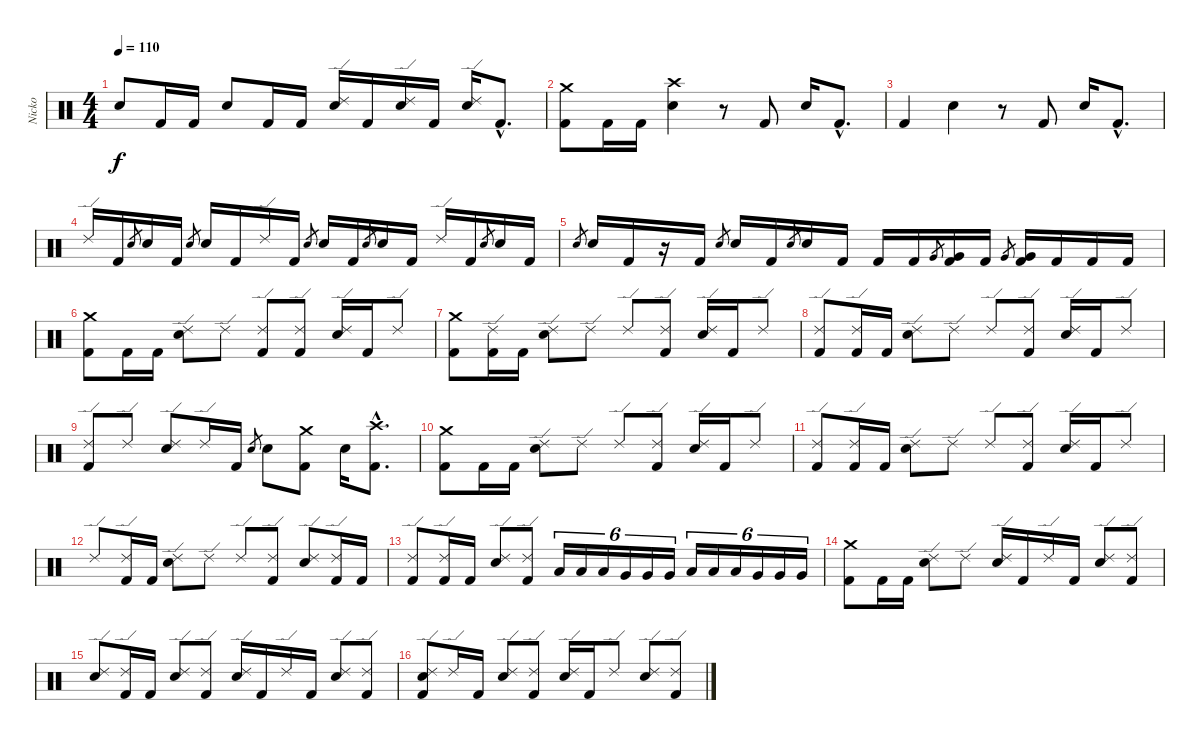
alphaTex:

\track ("Nicko" "Nicko") {instrument percussion}
\staff {score}
\articulation defaults
\ts (4 4)
\tempo 110
\clef neutral
\ks c "Electric Snare (hit)".8{dy f} "Kick (hit) 2".16 "Kick (hit) 2".16 "Electric Snare (hit)".8 "Kick (hit) 2".16 "Kick (hit) 2".16
("Ride (edge) 2" "Electric Snare (hit)").16 "Kick (hit) 2".16 ("Ride (edge) 2" "Electric Snare (hit)").16 "Kick (hit) 2".16 ("Ride (edge) 2" "Electric Snare (hit)").16 "Kick (hit) 2"{hac}.8{d} |
("Crash medium (hit)" "Kick (hit) 2").8 "Kick (hit) 2".16 "Kick (hit) 2".16 ("Crash high (hit)" "Electric Snare (hit)").4 r.8 "Kick (hit) 2".8 "Electric Snare (hit)".16 "Kick (hit) 2"{hac}.8{d} |
"Kick (hit) 2".4 "Electric Snare (hit)".4 r.8 "Kick (hit) 2".8 "Electric Snare (hit)".16 "Kick (hit) 2"{hac}.8{d} |
"Ride (edge) 2".16 "Kick (hit) 2".16 "Electric Snare (hit)".8{gr} "Electric Snare (hit)".16 "Kick (hit) 2".16 "Electric Snare (hit)".8{gr} "Electric Snare (hit)".16 "Kick (hit) 2".16 "Ride (edge) 2".16 "Kick (hit) 2".16 "Electric Snare (hit)".8{gr} "Electric Snare (hit)".16 "Kick (hit) 2".16 "Electric Snare (hit)".8{gr} "Electric Snare (hit)".16 "Kick (hit) 2".16 "Ride (edge) 2".16 "Kick (hit) 2".16 "Electric Snare (hit)".8{gr} "Electric Snare (hit)".16 "Kick (hit) 2".16 |
"Electric Snare (hit)".8{gr} "Electric Snare (hit)".16 "Kick (hit) 2".16 r.16 "Kick (hit) 2".16 "Electric Snare (hit)".8{gr} "Electric Snare (hit)".16 "Kick (hit) 2".16 "Electric Snare (hit)".8{gr} "Electric Snare (hit)".16 "Kick (hit) 2".16 "Kick (hit) 2".16 "Kick (hit) 2".16 "Very Low Tom (hit)".8{gr} ("Very Low Tom (hit)" "Kick (hit) 2").16 "Kick (hit) 2".16 "Very Low Tom (hit)".8{gr} ("Very Low Tom (hit)" "Kick (hit) 2").16 "Kick (hit) 2".16 "Kick (hit) 2".16 "Kick (hit) 2".16 |
("Crash medium (hit)" "Kick (hit) 2").8 "Kick (hit) 2".16 "Kick (hit) 2".16 ("Ride (edge) 2" "Electric Snare (hit)").8 "Ride (edge) 2".8 ("Ride (edge) 2" "Kick (hit) 2").8 ("Ride (edge) 2" "Kick (hit) 2").8 ("Ride (edge) 2" "Electric Snare (hit)").16 "Kick (hit) 2".16 "Ride (edge) 2".8 |
("Crash medium (hit)" "Kick (hit) 2").8 ("Ride (edge) 2" "Kick (hit) 2").16 "Kick (hit) 2".16 ("Ride (edge) 2" "Electric Snare (hit)").8 "Ride (edge) 2".8 "Ride (edge) 2".8 ("Ride (edge) 2" "Kick (hit) 2").8 ("Ride (edge) 2" "Electric Snare (hit)").16 "Kick (hit) 2".16 "Ride (edge) 2".8 |
("Ride (edge) 2" "Kick (hit) 2").8 ("Ride (edge) 2" "Kick (hit) 2").16 "Kick (hit) 2".16 ("Ride (edge) 2" "Electric Snare (hit)").8 "Ride (edge) 2".8 "Ride (edge) 2".8 ("Ride (edge) 2" "Kick (hit) 2").8 ("Ride (edge) 2" "Electric Snare (hit)").16 "Kick (hit) 2".16 "Ride (edge) 2".8 |
("Ride (edge) 2" "Kick (hit) 2").8 "Ride (edge) 2".8 ("Ride (edge) 2" "Electric Snare (hit)").8 "Ride (edge) 2".16 "Kick (hit) 2".16 "Electric Snare (hit)".8{gr} "Electric Snare (hit)".8 ("Crash medium (hit)" "Kick (hit) 2").8 "Electric Snare (hit)".16 ("Crash high (hit)"{hac} "Kick (hit) 2"{hac}).8{d} |
("Crash medium (hit)" "Kick (hit) 2").8 "Kick (hit) 2".16 "Kick (hit) 2".16 ("Ride (edge) 2" "Electric Snare (hit)").8 "Ride (edge) 2".8 "Ride (edge) 2".8 ("Ride (edge) 2" "Kick (hit) 2").8 ("Ride (edge) 2" "Electric Snare (hit)").16 "Kick (hit) 2".16 "Ride (edge) 2".8 |
("Ride (edge) 2" "Kick (hit) 2").8 ("Ride (edge) 2" "Kick (hit) 2").16 "Kick (hit) 2".16 ("Ride (edge) 2" "Electric Snare (hit)").8 "Ride (edge) 2".8 "Ride (edge) 2".8 ("Ride (edge) 2" "Kick (hit) 2").8 ("Ride (edge) 2" "Electric Snare (hit)").16 "Kick (hit) 2".16 "Ride (edge) 2".8 |
"Ride (edge) 2".8 ("Ride (edge) 2" "Kick (hit) 2").16 "Kick (hit) 2".16 ("Ride (edge) 2" "Electric Snare (hit)").8 "Ride (edge) 2".8 "Ride (edge) 2".8 ("Ride (edge) 2" "Kick (hit) 2").8 ("Ride (edge) 2" "Electric Snare (hit)").8 ("Ride (edge) 2" "Kick (hit) 2").16 "Kick (hit) 2".16 |
("Ride (edge) 2" "Kick (hit) 2").8 ("Ride (edge) 2" "Kick (hit) 2").16 "Kick (hit) 2".16 ("Ride (edge) 2" "Electric Snare (hit)").8 ("Ride (edge) 2" "Kick (hit) 2").8 "Low Tom (hit)".16{tu (6 4)} "Low Tom (hit)".16{tu (6 4)} "Low Tom (hit)".16{tu (6 4)} "Very Low Tom (hit)".16{tu (6 4)} "Very Low Tom (hit)".16{tu (6 4)} "Very Low Tom (hit)".16{tu (6 4)} "Low Tom (hit)".16{tu (6 4)} "Low Tom (hit)".16{tu (6 4)} "Low Tom (hit)".16{tu (6 4)} "Very Low Tom (hit)".16{tu (6 4)} "Very Low Tom (hit)".16{tu (6 4)} "Very Low Tom (hit)".16{tu (6 4)} |
("Crash medium (hit)" "Kick (hit) 2").8 "Kick (hit) 2".16 "Kick (hit) 2".16 ("Ride (edge) 2" "Electric Snare (hit)").8 "Ride (edge) 2".8 ("Ride (edge) 2" "Electric Snare (hit)").16 "Kick (hit) 2".16 "Ride (edge) 2".16 "Kick (hit) 2".16 ("Ride (edge) 2" "Electric Snare (hit)").8 ("Ride (edge) 2" "Kick (hit) 2").8 |
("Ride (edge) 2" "Electric Snare (hit)").8 ("Ride (edge) 2" "Kick (hit) 2").16 "Kick (hit) 2".16 ("Ride (edge) 2" "Electric Snare (hit)").8 ("Ride (edge) 2" "Kick (hit) 2").8 ("Ride (edge) 2" "Electric Snare (hit)").16 "Kick (hit) 2".16 "Ride (edge) 2".16 "Kick (hit) 2".16 ("Ride (edge) 2" "Electric Snare (hit)").8 ("Ride (edge) 2" "Kick (hit) 2").8 |
("Ride (edge) 2" "Electric Snare (hit)" "Kick (hit) 2").8 "Ride (edge) 2".16 "Kick (hit) 2".16 ("Ride (edge) 2" "Electric Snare (hit)").8 ("Ride (edge) 2" "Kick (hit) 2").8 ("Ride (edge) 2" "Electric Snare (hit)").16 "Kick (hit) 2".16 "Ride (edge) 2".8 ("Ride (edge) 2" "Electric Snare (hit)").8 ("Ride (edge) 2" "Kick (hit) 2").8
